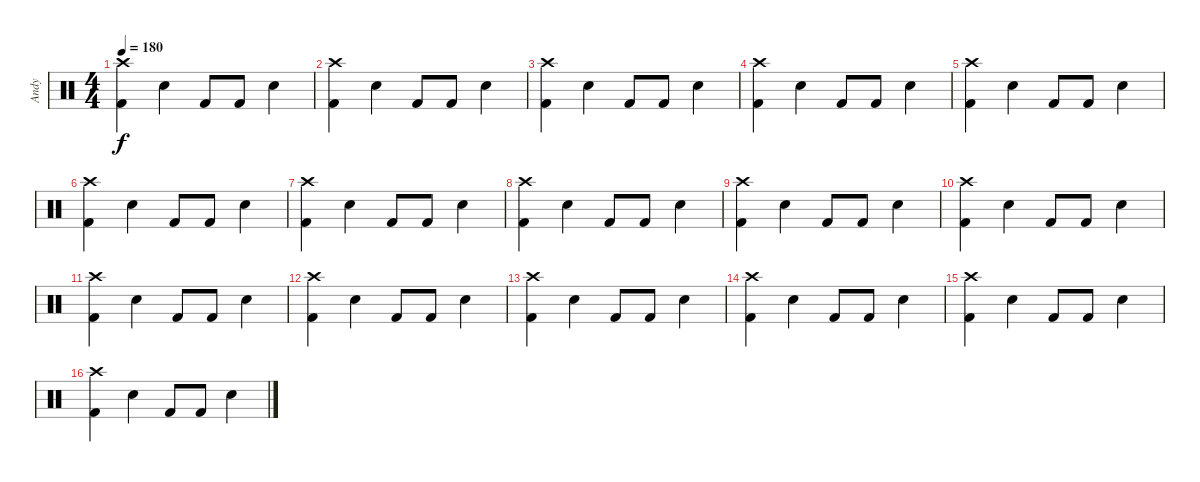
\track ("Andy" "Andy") {instrument percussion}
\staff {score}
\articulation defaults
\ts (4 4)
\tempo 180
\clef neutral
\ks c
("Crash high (hit)" "Kick (hit) 2").4{dy f} "Snare (hit) 2".4 "Kick (hit) 2".8 "Kick (hit) 2".8 "Snare (hit) 2".4 |
("Crash high (hit)" "Kick (hit) 2").4 "Snare (hit) 2".4 "Kick (hit) 2".8 "Kick (hit) 2".8 "Snare (hit) 2".4 |
("Crash high (hit)" "Kick (hit) 2").4 "Snare (hit) 2".4 "Kick (hit) 2".8 "Kick (hit) 2".8 "Snare (hit) 2".4 |
("Crash high (hit)" "Kick (hit) 2").4 "Snare (hit) 2".4 "Kick (hit) 2".8 "Kick (hit) 2".8 "Snare (hit) 2".4 |
("Crash high (hit)" "Kick (hit) 2").4 "Snare (hit) 2".4 "Kick (hit) 2".8 "Kick (hit) 2".8 "Snare (hit) 2".4 |
("Crash high (hit)" "Kick (hit) 2").4 "Snare (hit) 2".4 "Kick (hit) 2".8 "Kick (hit) 2".8 "Snare (hit) 2".4 |
("Crash high (hit)" "Kick (hit) 2").4 "Snare (hit) 2".4 "Kick (hit) 2".8 "Kick (hit) 2".8 "Snare (hit) 2".4 |
("Crash high (hit)" "Kick (hit) 2").4 "Snare (hit) 2".4 "Kick (hit) 2".8 "Kick (hit) 2".8 "Snare (hit) 2".4 |
("Crash high (hit)" "Kick (hit) 2").4 "Snare (hit) 2".4 "Kick (hit) 2".8 "Kick (hit) 2".8 "Snare (hit) 2".4 |
("Crash high (hit)" "Kick (hit) 2").4 "Snare (hit) 2".4 "Kick (hit) 2".8 "Kick (hit) 2".8 "Snare (hit) 2".4 |
("Crash high (hit)" "Kick (hit) 2").4 "Snare (hit) 2".4 "Kick (hit) 2".8 "Kick (hit) 2".8 "Snare (hit) 2".4 |
("Crash high (hit)" "Kick (hit) 2").4 "Snare (hit) 2".4 "Kick (hit) 2".8 "Kick (hit) 2".8 "Snare (hit) 2".4 |
("Crash high (hit)" "Kick (hit) 2").4 "Snare (hit) 2".4 "Kick (hit) 2".8 "Kick (hit) 2".8 "Snare (hit) 2".4 |
("Crash high (hit)" "Kick (hit) 2").4 "Snare (hit) 2".4 "Kick (hit) 2".8 "Kick (hit) 2".8 "Snare (hit) 2".4 |
("Crash high (hit)" "Kick (hit) 2").4 "Snare (hit) 2".4 "Kick (hit) 2".8 "Kick (hit) 2".8 "Snare (hit) 2".4 |
("Crash high (hit)" "Kick (hit) 2").4 "Snare (hit) 2".4 "Kick (hit) 2".8 "Kick (hit) 2".8 "Snare (hit) 2".4
